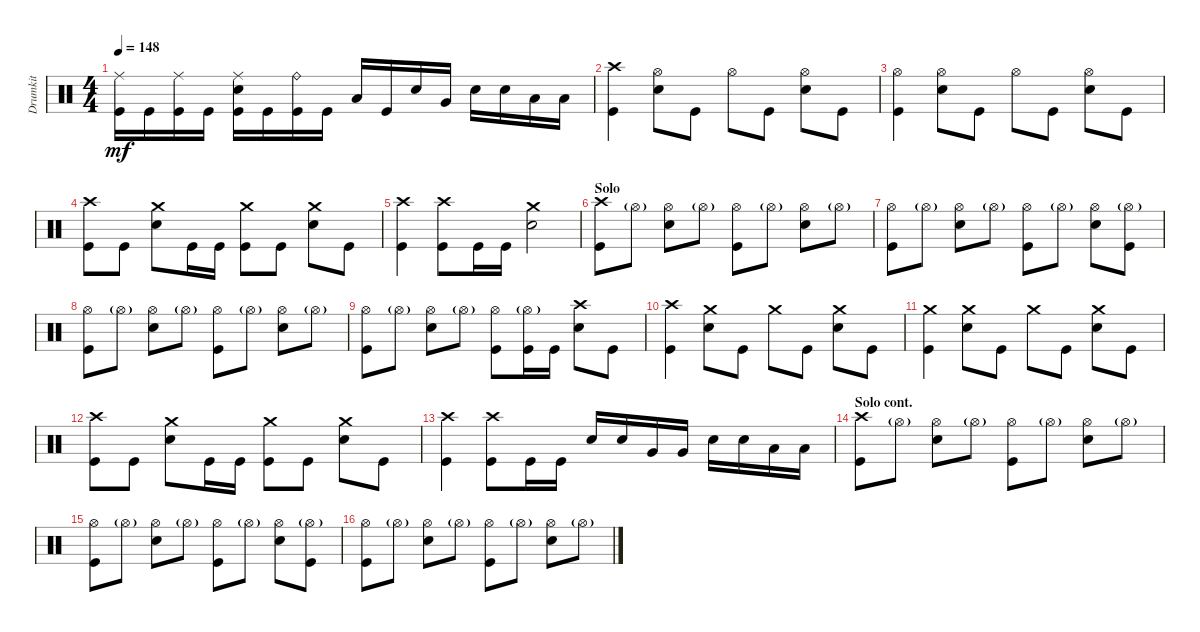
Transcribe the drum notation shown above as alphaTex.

\track ("Drumkit" "Drumkit") {instrument percussion}
\staff {score}
\articulation defaults
\ts (4 4)
\tempo 148
\clef neutral
\ks c
("Kick (hit)" "Ride (middle)").16{dy mf} "Kick (hit)".16 ("Kick (hit)" "Ride (middle)").16 "Kick (hit)".16 ("Kick (hit)" "Ride (middle)" "Snare (hit) 2").16 "Kick (hit)".16 ("Kick (hit)" "Ride (bell)").16 "Kick (hit)".16 "Low Tom (hit)".16 "Kick (hit)".16 "Snare (hit) 2".16 "Very Low Tom (hit)".16 "Snare (hit) 2".16 "Snare (hit) 2".16 "Low Floor Tom (hit)".16 "Low Floor Tom (hit)".16 |
("Crash high (hit)" "Kick (hit)").4 ("Hi-Hat (open)" "Snare (hit) 2").8 "Kick (hit)".8 "Hi-Hat (open)".8 "Kick (hit)".8 ("Hi-Hat (open)" "Snare (hit) 2").8 "Kick (hit)".8 |
("Kick (hit)" "Hi-Hat (open)").4 ("Hi-Hat (open)" "Snare (hit) 2").8 "Kick (hit)".8 "Hi-Hat (open)".8 "Kick (hit)".8 ("Hi-Hat (open)" "Snare (hit) 2").8 "Kick (hit)".8 |
("Kick (hit)" "Crash high (hit)").8 "Kick (hit)".8 ("Snare (hit) 2" "Crash medium (hit)").8 "Kick (hit)".16 "Kick (hit)".16 ("Kick (hit)" "Crash medium (hit)").8 "Kick (hit)".8 ("Snare (hit) 2" "Crash medium (hit)").8 "Kick (hit)".8 |
("Kick (hit)" "Crash high (hit)").4 ("Kick (hit)" "Crash high (hit)").8 "Kick (hit)".16 "Kick (hit)".16 ("Snare (hit) 2" "Crash medium (hit)").2 |
\section ("" "Solo")
("Crash high (hit)" "Kick (hit)").8 "Hi-Hat (open)"{g}.8 ("Hi-Hat (open)" "Snare (hit) 2").8 "Hi-Hat (open)"{g}.8 ("Hi-Hat (open)" "Kick (hit)").8 "Hi-Hat (open)"{g}.8 ("Hi-Hat (open)" "Snare (hit) 2").8 "Hi-Hat (open)"{g}.8 |
("Kick (hit)" "Hi-Hat (open)").8 "Hi-Hat (open)"{g}.8 ("Hi-Hat (open)" "Snare (hit) 2").8 "Hi-Hat (open)"{g}.8 ("Hi-Hat (open)" "Kick (hit)").8 "Hi-Hat (open)"{g}.8 ("Hi-Hat (open)" "Snare (hit) 2").8 ("Hi-Hat (open)"{g} "Kick (hit)").8 |
("Kick (hit)" "Hi-Hat (open)").8 "Hi-Hat (open)"{g}.8 ("Hi-Hat (open)" "Snare (hit) 2").8 "Hi-Hat (open)"{g}.8 ("Hi-Hat (open)" "Kick (hit)").8 "Hi-Hat (open)"{g}.8 ("Hi-Hat (open)" "Snare (hit) 2").8 "Hi-Hat (open)"{g}.8 |
("Kick (hit)" "Hi-Hat (open)").8 "Hi-Hat (open)"{g}.8 ("Hi-Hat (open)" "Snare (hit) 2").8 "Hi-Hat (open)"{g}.8 ("Hi-Hat (open)" "Kick (hit)").8 ("Hi-Hat (open)"{g} "Kick (hit)").16 "Kick (hit)".16 ("Snare (hit) 2" "Crash high (hit)").8 "Kick (hit)".8 |
("Crash high (hit)" "Kick (hit)").4 ("Snare (hit) 2" "Crash medium (hit)").8 "Kick (hit)".8 "Crash medium (hit)".8 "Kick (hit)".8 ("Snare (hit) 2" "Crash medium (hit)").8 "Kick (hit)".8 |
("Kick (hit)" "Crash medium (hit)").4 ("Snare (hit) 2" "Crash medium (hit)").8 "Kick (hit)".8 "Crash medium (hit)".8 "Kick (hit)".8 ("Snare (hit) 2" "Crash medium (hit)").8 "Kick (hit)".8 |
("Kick (hit)" "Crash high (hit)").8 "Kick (hit)".8 ("Snare (hit) 2" "Crash medium (hit)").8 "Kick (hit)".16 "Kick (hit)".16 ("Kick (hit)" "Crash medium (hit)").8 "Kick (hit)".8 ("Snare (hit) 2" "Crash medium (hit)").8 "Kick (hit)".8 |
("Kick (hit)" "Crash high (hit)").4 ("Kick (hit)" "Crash high (hit)").8 "Kick (hit)".16 "Kick (hit)".16 "Snare (hit) 2".16 "Snare (hit) 2".16 "Very Low Tom (hit)".16 "Very Low Tom (hit)".16 "Snare (hit) 2".16 "Snare (hit) 2".16 "Low Floor Tom (hit)".16 "Low Floor Tom (hit)".16 |
\section ("" "Solo cont.")
("Crash high (hit)" "Kick (hit)").8 "Hi-Hat (open)"{g}.8 ("Hi-Hat (open)" "Snare (hit) 2").8 "Hi-Hat (open)"{g}.8 ("Hi-Hat (open)" "Kick (hit)").8 "Hi-Hat (open)"{g}.8 ("Hi-Hat (open)" "Snare (hit) 2").8 "Hi-Hat (open)"{g}.8 |
("Kick (hit)" "Hi-Hat (open)").8 "Hi-Hat (open)"{g}.8 ("Hi-Hat (open)" "Snare (hit) 2").8 "Hi-Hat (open)"{g}.8 ("Hi-Hat (open)" "Kick (hit)").8 "Hi-Hat (open)"{g}.8 ("Hi-Hat (open)" "Snare (hit) 2").8 ("Hi-Hat (open)"{g} "Kick (hit)").8 |
("Kick (hit)" "Hi-Hat (open)").8 "Hi-Hat (open)"{g}.8 ("Hi-Hat (open)" "Snare (hit) 2").8 "Hi-Hat (open)"{g}.8 ("Hi-Hat (open)" "Kick (hit)").8 "Hi-Hat (open)"{g}.8 ("Hi-Hat (open)" "Snare (hit) 2").8 "Hi-Hat (open)"{g}.8
